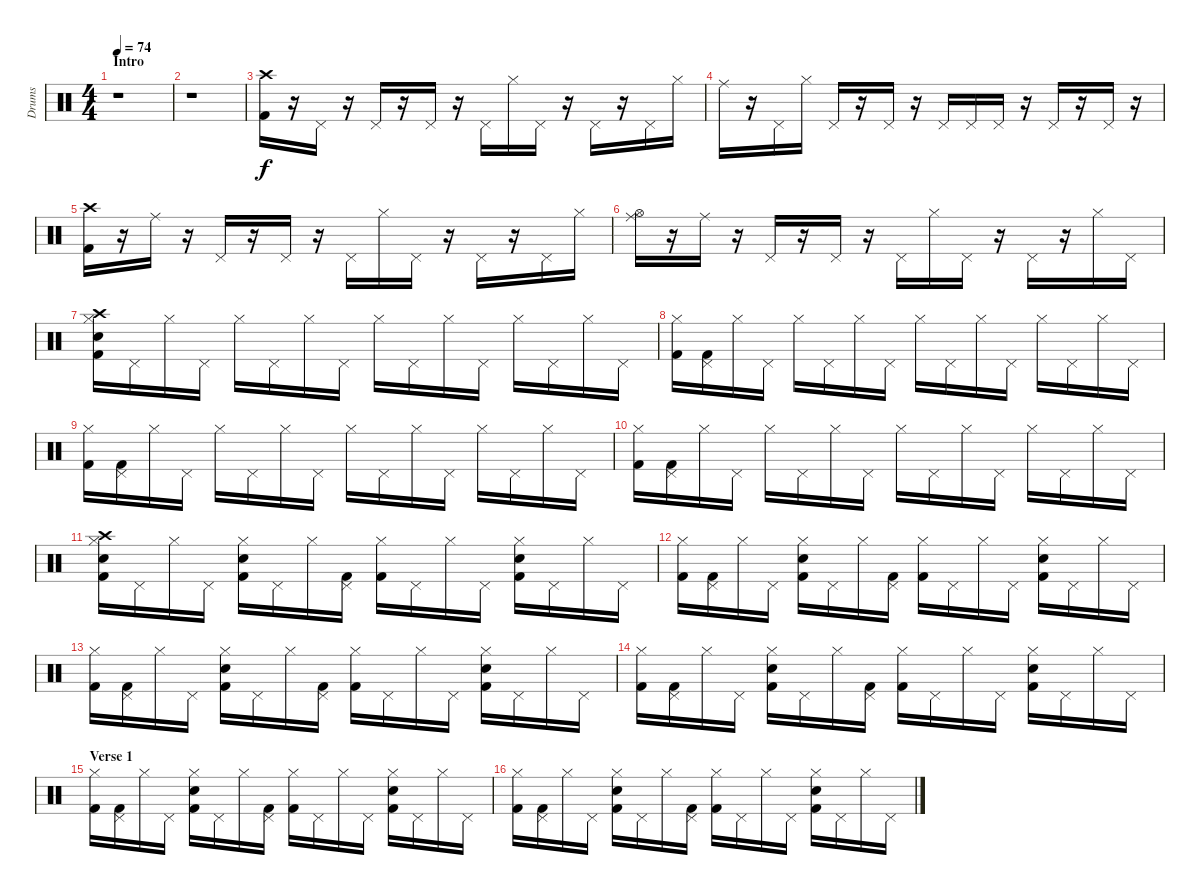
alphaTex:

\track ("Drums" "Drums") {instrument percussion}
\staff {score}
\articulation defaults
\ts (4 4)
\section ("" "Intro")
\tempo 74
\clef neutral
\ks c
r.1{dy f} |
r.1 |
("Crash high (hit)" "Kick (hit) 2").16 r.16 "Pedal Hi-Hat (hit)".16 r.16 "Pedal Hi-Hat (hit)".16 r.16 "Pedal Hi-Hat (hit)".16 r.16 "Pedal Hi-Hat (hit)".16 "Hi-Hat (closed)".16 "Pedal Hi-Hat (hit)".16 r.16 "Pedal Hi-Hat (hit)".16 r.16 "Pedal Hi-Hat (hit)".16 "Hi-Hat (closed)".16 |
"Ride (middle)".16 r.16 "Pedal Hi-Hat (hit)".16 "Hi-Hat (closed)".16 "Pedal Hi-Hat (hit)".16 r.16 "Pedal Hi-Hat (hit)".16 r.16 "Pedal Hi-Hat (hit)".16 "Pedal Hi-Hat (hit)".16 "Pedal Hi-Hat (hit)".16 r.16 "Pedal Hi-Hat (hit)".16 r.16 "Pedal Hi-Hat (hit)".16 r.16 |
("Crash high (hit)" "Kick (hit) 2").16 r.16 "Ride (middle)".16 r.16 "Pedal Hi-Hat (hit)".16 r.16 "Pedal Hi-Hat (hit)".16 r.16 "Pedal Hi-Hat (hit)".16 "Hi-Hat (closed)".16 "Pedal Hi-Hat (hit)".16 r.16 "Pedal Hi-Hat (hit)".16 r.16 "Pedal Hi-Hat (hit)".16 "Hi-Hat (closed)".16 |
("Ride (middle)" "Hi-Hat (open)").16 r.16 "Ride (middle)".16 r.16 "Pedal Hi-Hat (hit)".16 r.16 "Pedal Hi-Hat (hit)".16 r.16 "Pedal Hi-Hat (hit)".16 "Hi-Hat (closed)".16 "Pedal Hi-Hat (hit)".16 r.16 "Pedal Hi-Hat (hit)".16 r.16 "Hi-Hat (closed)".16 "Pedal Hi-Hat (hit)".16 |
("Hi-Hat (closed)" "Crash high (hit)" "Kick (hit) 2" "Snare (hit) 2").16 "Pedal Hi-Hat (hit)".16 "Hi-Hat (closed)".16 "Pedal Hi-Hat (hit)".16 "Hi-Hat (closed)".16 "Pedal Hi-Hat (hit)".16 "Hi-Hat (closed)".16 "Pedal Hi-Hat (hit)".16 "Hi-Hat (closed)".16 "Pedal Hi-Hat (hit)".16 "Hi-Hat (closed)".16 "Pedal Hi-Hat (hit)".16 "Hi-Hat (closed)".16 "Pedal Hi-Hat (hit)".16 "Hi-Hat (closed)".16 "Pedal Hi-Hat (hit)".16 |
("Hi-Hat (closed)" "Kick (hit) 2").16 ("Pedal Hi-Hat (hit)" "Kick (hit) 2").16 "Hi-Hat (closed)".16 "Pedal Hi-Hat (hit)".16 "Hi-Hat (closed)".16 "Pedal Hi-Hat (hit)".16 "Hi-Hat (closed)".16 "Pedal Hi-Hat (hit)".16 "Hi-Hat (closed)".16 "Pedal Hi-Hat (hit)".16 "Hi-Hat (closed)".16 "Pedal Hi-Hat (hit)".16 "Hi-Hat (closed)".16 "Pedal Hi-Hat (hit)".16 "Hi-Hat (closed)".16 "Pedal Hi-Hat (hit)".16 |
("Hi-Hat (closed)" "Kick (hit) 2").16 ("Pedal Hi-Hat (hit)" "Kick (hit) 2").16 "Hi-Hat (closed)".16 "Pedal Hi-Hat (hit)".16 "Hi-Hat (closed)".16 "Pedal Hi-Hat (hit)".16 "Hi-Hat (closed)".16 "Pedal Hi-Hat (hit)".16 "Hi-Hat (closed)".16 "Pedal Hi-Hat (hit)".16 "Hi-Hat (closed)".16 "Pedal Hi-Hat (hit)".16 "Hi-Hat (closed)".16 "Pedal Hi-Hat (hit)".16 "Hi-Hat (closed)".16 "Pedal Hi-Hat (hit)".16 |
("Hi-Hat (closed)" "Kick (hit) 2").16 ("Pedal Hi-Hat (hit)" "Kick (hit) 2").16 "Hi-Hat (closed)".16 "Pedal Hi-Hat (hit)".16 "Hi-Hat (closed)".16 "Pedal Hi-Hat (hit)".16 "Hi-Hat (closed)".16 "Pedal Hi-Hat (hit)".16 "Hi-Hat (closed)".16 "Pedal Hi-Hat (hit)".16 "Hi-Hat (closed)".16 "Pedal Hi-Hat (hit)".16 "Hi-Hat (closed)".16 "Pedal Hi-Hat (hit)".16 "Hi-Hat (closed)".16 "Pedal Hi-Hat (hit)".16 |
("Hi-Hat (closed)" "Crash high (hit)" "Kick (hit) 2" "Snare (hit) 2").16 "Pedal Hi-Hat (hit)".16 "Hi-Hat (closed)".16 "Pedal Hi-Hat (hit)".16 ("Hi-Hat (closed)" "Kick (hit) 2" "Snare (hit) 2").16 "Pedal Hi-Hat (hit)".16 "Hi-Hat (closed)".16 ("Pedal Hi-Hat (hit)" "Kick (hit) 2").16 ("Hi-Hat (closed)" "Kick (hit) 2").16 "Pedal Hi-Hat (hit)".16 "Hi-Hat (closed)".16 "Pedal Hi-Hat (hit)".16 ("Hi-Hat (closed)" "Kick (hit) 2" "Snare (hit) 2").16 "Pedal Hi-Hat (hit)".16 "Hi-Hat (closed)".16 "Pedal Hi-Hat (hit)".16 |
("Hi-Hat (closed)" "Kick (hit) 2").16 ("Pedal Hi-Hat (hit)" "Kick (hit) 2").16 "Hi-Hat (closed)".16 "Pedal Hi-Hat (hit)".16 ("Hi-Hat (closed)" "Kick (hit) 2" "Snare (hit) 2").16 "Pedal Hi-Hat (hit)".16 "Hi-Hat (closed)".16 ("Pedal Hi-Hat (hit)" "Kick (hit) 2").16 ("Hi-Hat (closed)" "Kick (hit) 2").16 "Pedal Hi-Hat (hit)".16 "Hi-Hat (closed)".16 "Pedal Hi-Hat (hit)".16 ("Hi-Hat (closed)" "Kick (hit) 2" "Snare (hit) 2").16 "Pedal Hi-Hat (hit)".16 "Hi-Hat (closed)".16 "Pedal Hi-Hat (hit)".16 |
("Hi-Hat (closed)" "Kick (hit) 2").16 ("Pedal Hi-Hat (hit)" "Kick (hit) 2").16 "Hi-Hat (closed)".16 "Pedal Hi-Hat (hit)".16 ("Hi-Hat (closed)" "Kick (hit) 2" "Snare (hit) 2").16 "Pedal Hi-Hat (hit)".16 "Hi-Hat (closed)".16 ("Pedal Hi-Hat (hit)" "Kick (hit) 2").16 ("Hi-Hat (closed)" "Kick (hit) 2").16 "Pedal Hi-Hat (hit)".16 "Hi-Hat (closed)".16 "Pedal Hi-Hat (hit)".16 ("Hi-Hat (closed)" "Kick (hit) 2" "Snare (hit) 2").16 "Pedal Hi-Hat (hit)".16 "Hi-Hat (closed)".16 "Pedal Hi-Hat (hit)".16 |
("Hi-Hat (closed)" "Kick (hit) 2").16 ("Pedal Hi-Hat (hit)" "Kick (hit) 2").16 "Hi-Hat (closed)".16 "Pedal Hi-Hat (hit)".16 ("Hi-Hat (closed)" "Kick (hit) 2" "Snare (hit) 2").16 "Pedal Hi-Hat (hit)".16 "Hi-Hat (closed)".16 ("Pedal Hi-Hat (hit)" "Kick (hit) 2").16 ("Hi-Hat (closed)" "Kick (hit) 2").16 "Pedal Hi-Hat (hit)".16 "Hi-Hat (closed)".16 "Pedal Hi-Hat (hit)".16 ("Hi-Hat (closed)" "Kick (hit) 2" "Snare (hit) 2").16 "Pedal Hi-Hat (hit)".16 "Hi-Hat (closed)".16 "Pedal Hi-Hat (hit)".16 |
\section ("" "Verse 1")
("Hi-Hat (closed)" "Kick (hit) 2").16 ("Pedal Hi-Hat (hit)" "Kick (hit) 2").16 "Hi-Hat (closed)".16 "Pedal Hi-Hat (hit)".16 ("Hi-Hat (closed)" "Kick (hit) 2" "Snare (hit) 2").16 "Pedal Hi-Hat (hit)".16 "Hi-Hat (closed)".16 ("Pedal Hi-Hat (hit)" "Kick (hit) 2").16 ("Hi-Hat (closed)" "Kick (hit) 2").16 "Pedal Hi-Hat (hit)".16 "Hi-Hat (closed)".16 "Pedal Hi-Hat (hit)".16 ("Hi-Hat (closed)" "Kick (hit) 2" "Snare (hit) 2").16 "Pedal Hi-Hat (hit)".16 "Hi-Hat (closed)".16 "Pedal Hi-Hat (hit)".16 |
("Hi-Hat (closed)" "Kick (hit) 2").16 ("Pedal Hi-Hat (hit)" "Kick (hit) 2").16 "Hi-Hat (closed)".16 "Pedal Hi-Hat (hit)".16 ("Hi-Hat (closed)" "Kick (hit) 2" "Snare (hit) 2").16 "Pedal Hi-Hat (hit)".16 "Hi-Hat (closed)".16 ("Pedal Hi-Hat (hit)" "Kick (hit) 2").16 ("Hi-Hat (closed)" "Kick (hit) 2").16 "Pedal Hi-Hat (hit)".16 "Hi-Hat (closed)".16 "Pedal Hi-Hat (hit)".16 ("Hi-Hat (closed)" "Kick (hit) 2" "Snare (hit) 2").16 "Pedal Hi-Hat (hit)".16 "Hi-Hat (closed)".16 "Pedal Hi-Hat (hit)".16
